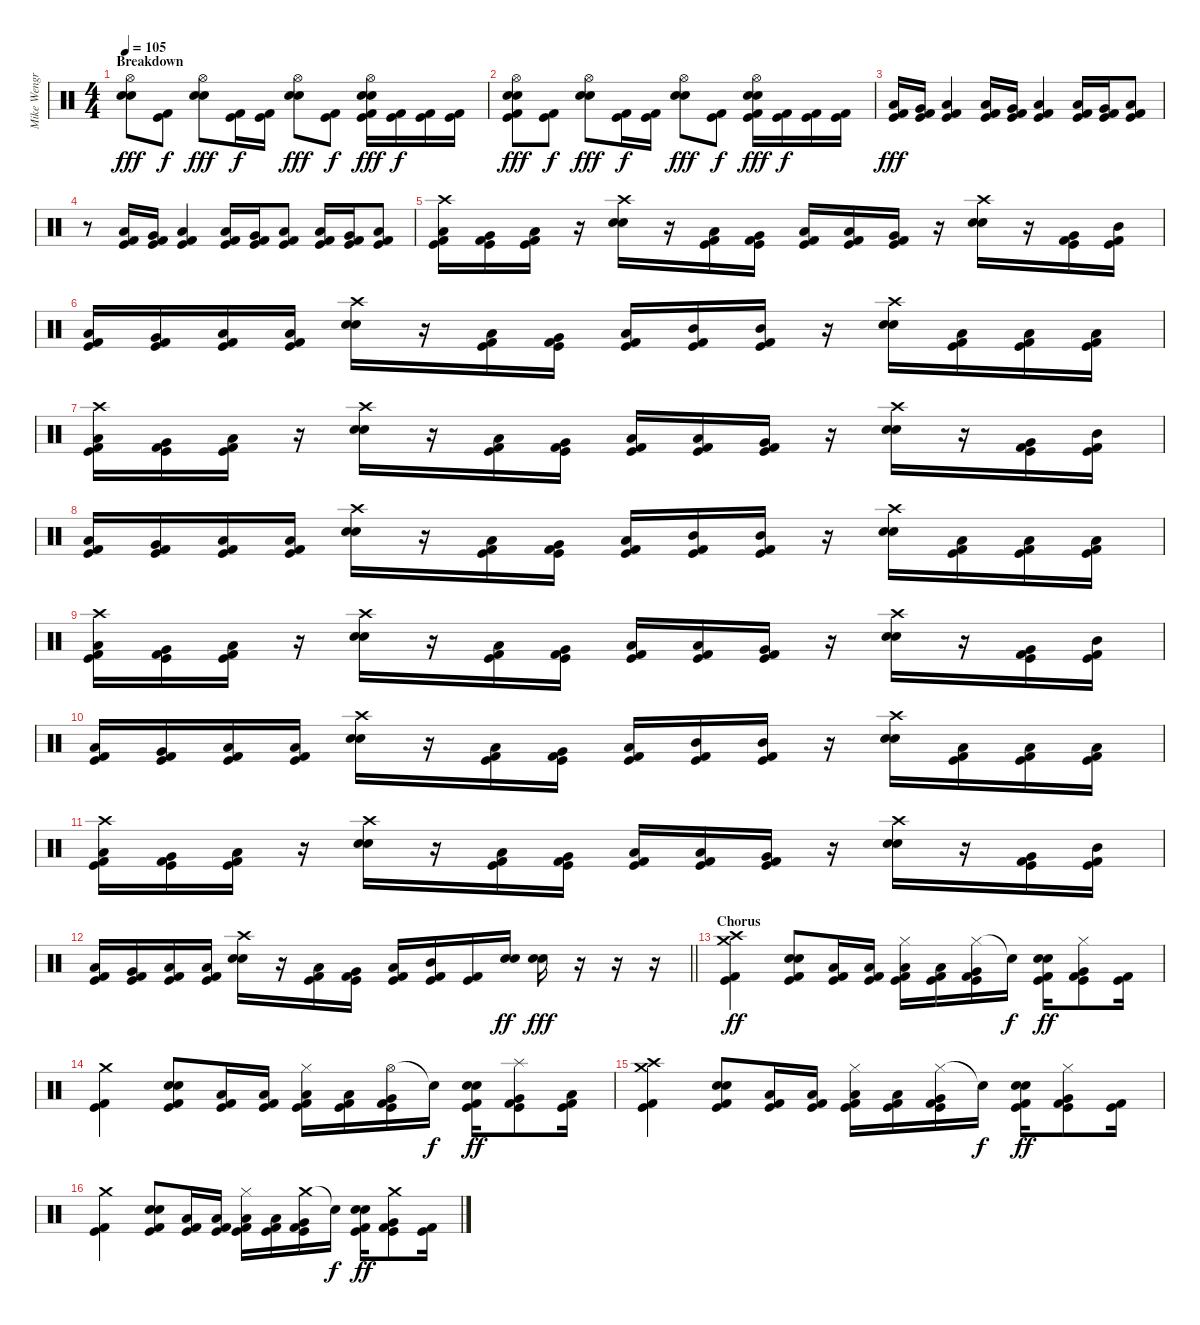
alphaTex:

\track ("Mike Wengren (Drums)" "Mike Wengr") {instrument percussion}
\staff {score}
\articulation defaults
\ts (4 4)
\section ("" "Breakdown")
\tempo 105
\clef neutral
\ks c
("Hi-Hat (open)" "Electric Snare (hit)" "Snare (hit) 2").8{dy fff} ("Kick (hit) 2" "Kick (hit)").8{dy f} ("Hi-Hat (open)" "Electric Snare (hit)" "Snare (hit) 2").8{dy fff} ("Kick (hit) 2" "Kick (hit)").16{dy f} ("Kick (hit) 2" "Kick (hit)").16 ("Hi-Hat (open)" "Electric Snare (hit)" "Snare (hit) 2").8{dy fff} ("Kick (hit) 2" "Kick (hit)").8{dy f} ("Hi-Hat (open)" "Electric Snare (hit)" "Snare (hit) 2" "Kick (hit) 2" "Kick (hit)").16{dy fff} ("Kick (hit) 2" "Kick (hit)").16{dy f} ("Kick (hit) 2" "Kick (hit)").16 ("Kick (hit) 2" "Kick (hit)").16 |
("Hi-Hat (open)" "Electric Snare (hit)" "Snare (hit) 2" "Kick (hit) 2" "Kick (hit)").8{dy fff} ("Kick (hit) 2" "Kick (hit)").8{dy f} ("Hi-Hat (open)" "Electric Snare (hit)" "Snare (hit) 2").8{dy fff} ("Kick (hit) 2" "Kick (hit)").16{dy f} ("Kick (hit) 2" "Kick (hit)").16 ("Hi-Hat (open)" "Electric Snare (hit)" "Snare (hit) 2").8{dy fff} ("Kick (hit) 2" "Kick (hit)").8{dy f} ("Hi-Hat (open)" "Electric Snare (hit)" "Snare (hit) 2" "Kick (hit) 2" "Kick (hit)").16{dy fff} ("Kick (hit) 2" "Kick (hit)").16{dy f} ("Kick (hit) 2" "Kick (hit)").16 ("Kick (hit) 2" "Kick (hit)").16 |
("Low Floor Tom (hit)" "Kick (hit)" "Kick (hit) 2").16{dy fff} ("Very Low Tom (hit)" "Kick (hit)" "Kick (hit) 2").16 ("Low Floor Tom (hit)" "Kick (hit)" "Kick (hit) 2").4 ("Low Floor Tom (hit)" "Kick (hit)" "Kick (hit) 2").16 ("Very Low Tom (hit)" "Kick (hit)" "Kick (hit) 2").16 ("Low Floor Tom (hit)" "Kick (hit)" "Kick (hit) 2").4 ("Low Floor Tom (hit)" "Kick (hit)" "Kick (hit) 2").16 ("Very Low Tom (hit)" "Kick (hit)" "Kick (hit) 2").16 ("Low Floor Tom (hit)" "Kick (hit)" "Kick (hit) 2").8 |
r.8 ("Low Floor Tom (hit)" "Kick (hit)" "Kick (hit) 2").16 ("Very Low Tom (hit)" "Kick (hit)" "Kick (hit) 2").16 ("Low Floor Tom (hit)" "Kick (hit)" "Kick (hit) 2").4 ("Low Floor Tom (hit)" "Kick (hit)" "Kick (hit) 2").16 ("Very Low Tom (hit)" "Kick (hit)" "Kick (hit) 2").16 ("Low Floor Tom (hit)" "Kick (hit)" "Kick (hit) 2").8 ("Low Floor Tom (hit)" "Kick (hit)" "Kick (hit) 2").16 ("Very Low Tom (hit)" "Kick (hit)" "Kick (hit) 2").16 ("Low Floor Tom (hit)" "Kick (hit)" "Kick (hit) 2").8 |
("Crash high (hit)" "Low Floor Tom (hit)" "Kick (hit)" "Kick (hit) 2").16 ("Very Low Tom (hit)" "Kick (hit)" "Kick (hit) 2").16 ("Low Floor Tom (hit)" "Kick (hit)" "Kick (hit) 2").16 r.16 ("Crash high (hit)" "Electric Snare (hit)" "Snare (hit) 2").16 r.16 ("Low Floor Tom (hit)" "Kick (hit)" "Kick (hit) 2").16 ("Very Low Tom (hit)" "Kick (hit)" "Kick (hit) 2").16 ("Low Floor Tom (hit)" "Kick (hit)" "Kick (hit) 2").16 ("Low Tom (hit)" "Kick (hit)" "Kick (hit) 2").16 ("Very Low Tom (hit)" "Kick (hit)" "Kick (hit) 2").16 r.16 ("Crash high (hit)" "Electric Snare (hit)" "Snare (hit) 2").16 r.16 ("Very Low Tom (hit)" "Kick (hit)" "Kick (hit) 2").16 ("Mid Tom (hit)" "Kick (hit)" "Kick (hit) 2").16 |
("Low Floor Tom (hit)" "Kick (hit)" "Kick (hit) 2").16 ("Very Low Tom (hit)" "Kick (hit)" "Kick (hit) 2").16 ("Low Floor Tom (hit)" "Kick (hit)" "Kick (hit) 2").16 ("Low Floor Tom (hit)" "Kick (hit)" "Kick (hit) 2").16 ("Crash high (hit)" "Electric Snare (hit)" "Snare (hit) 2").16 r.16 ("Low Floor Tom (hit)" "Kick (hit)" "Kick (hit) 2").16 ("Very Low Tom (hit)" "Kick (hit)" "Kick (hit) 2").16 ("Low Floor Tom (hit)" "Kick (hit)" "Kick (hit) 2").16 ("Mid Tom (hit)" "Kick (hit)" "Kick (hit) 2").16 ("Mid Tom (hit)" "Kick (hit)" "Kick (hit) 2").16 r.16 ("Crash high (hit)" "Electric Snare (hit)" "Snare (hit) 2").16 ("Low Tom (hit)" "Kick (hit)" "Kick (hit) 2").16 ("Low Tom (hit)" "Kick (hit)" "Kick (hit) 2").16 ("Low Tom (hit)" "Kick (hit)" "Kick (hit) 2").16 |
("Crash high (hit)" "Low Floor Tom (hit)" "Kick (hit)" "Kick (hit) 2").16 ("Very Low Tom (hit)" "Kick (hit)" "Kick (hit) 2").16 ("Low Floor Tom (hit)" "Kick (hit)" "Kick (hit) 2").16 r.16 ("Crash high (hit)" "Electric Snare (hit)" "Snare (hit) 2").16 r.16 ("Low Floor Tom (hit)" "Kick (hit)" "Kick (hit) 2").16 ("Very Low Tom (hit)" "Kick (hit)" "Kick (hit) 2").16 ("Low Floor Tom (hit)" "Kick (hit)" "Kick (hit) 2").16 ("Low Tom (hit)" "Kick (hit)" "Kick (hit) 2").16 ("Very Low Tom (hit)" "Kick (hit)" "Kick (hit) 2").16 r.16 ("Crash high (hit)" "Electric Snare (hit)" "Snare (hit) 2").16 r.16 ("Very Low Tom (hit)" "Kick (hit)" "Kick (hit) 2").16 ("Mid Tom (hit)" "Kick (hit)" "Kick (hit) 2").16 |
("Low Floor Tom (hit)" "Kick (hit)" "Kick (hit) 2").16 ("Very Low Tom (hit)" "Kick (hit)" "Kick (hit) 2").16 ("Low Floor Tom (hit)" "Kick (hit)" "Kick (hit) 2").16 ("Low Floor Tom (hit)" "Kick (hit)" "Kick (hit) 2").16 ("Crash high (hit)" "Electric Snare (hit)" "Snare (hit) 2").16 r.16 ("Low Floor Tom (hit)" "Kick (hit)" "Kick (hit) 2").16 ("Very Low Tom (hit)" "Kick (hit)" "Kick (hit) 2").16 ("Low Floor Tom (hit)" "Kick (hit)" "Kick (hit) 2").16 ("Mid Tom (hit)" "Kick (hit)" "Kick (hit) 2").16 ("Mid Tom (hit)" "Kick (hit)" "Kick (hit) 2").16 r.16 ("Crash high (hit)" "Electric Snare (hit)" "Snare (hit) 2").16 ("Low Tom (hit)" "Kick (hit)" "Kick (hit) 2").16 ("Low Tom (hit)" "Kick (hit)" "Kick (hit) 2").16 ("Low Tom (hit)" "Kick (hit)" "Kick (hit) 2").16 |
("Crash high (hit)" "Low Floor Tom (hit)" "Kick (hit)" "Kick (hit) 2").16 ("Very Low Tom (hit)" "Kick (hit)" "Kick (hit) 2").16 ("Low Floor Tom (hit)" "Kick (hit)" "Kick (hit) 2").16 r.16 ("Crash high (hit)" "Electric Snare (hit)" "Snare (hit) 2").16 r.16 ("Low Floor Tom (hit)" "Kick (hit)" "Kick (hit) 2").16 ("Very Low Tom (hit)" "Kick (hit)" "Kick (hit) 2").16 ("Low Floor Tom (hit)" "Kick (hit)" "Kick (hit) 2").16 ("Low Tom (hit)" "Kick (hit)" "Kick (hit) 2").16 ("Very Low Tom (hit)" "Kick (hit)" "Kick (hit) 2").16 r.16 ("Crash high (hit)" "Electric Snare (hit)" "Snare (hit) 2").16 r.16 ("Very Low Tom (hit)" "Kick (hit)" "Kick (hit) 2").16 ("Mid Tom (hit)" "Kick (hit)" "Kick (hit) 2").16 |
("Low Floor Tom (hit)" "Kick (hit)" "Kick (hit) 2").16 ("Very Low Tom (hit)" "Kick (hit)" "Kick (hit) 2").16 ("Low Floor Tom (hit)" "Kick (hit)" "Kick (hit) 2").16 ("Low Floor Tom (hit)" "Kick (hit)" "Kick (hit) 2").16 ("Crash high (hit)" "Electric Snare (hit)" "Snare (hit) 2").16 r.16 ("Low Floor Tom (hit)" "Kick (hit)" "Kick (hit) 2").16 ("Very Low Tom (hit)" "Kick (hit)" "Kick (hit) 2").16 ("Low Floor Tom (hit)" "Kick (hit)" "Kick (hit) 2").16 ("Mid Tom (hit)" "Kick (hit)" "Kick (hit) 2").16 ("Mid Tom (hit)" "Kick (hit)" "Kick (hit) 2").16 r.16 ("Crash high (hit)" "Electric Snare (hit)" "Snare (hit) 2").16 ("Low Tom (hit)" "Kick (hit)" "Kick (hit) 2").16 ("Low Tom (hit)" "Kick (hit)" "Kick (hit) 2").16 ("Low Tom (hit)" "Kick (hit)" "Kick (hit) 2").16 |
("Crash high (hit)" "Low Floor Tom (hit)" "Kick (hit)" "Kick (hit) 2").16 ("Very Low Tom (hit)" "Kick (hit)" "Kick (hit) 2").16 ("Low Floor Tom (hit)" "Kick (hit)" "Kick (hit) 2").16 r.16 ("Crash high (hit)" "Electric Snare (hit)" "Snare (hit) 2").16 r.16 ("Low Floor Tom (hit)" "Kick (hit)" "Kick (hit) 2").16 ("Very Low Tom (hit)" "Kick (hit)" "Kick (hit) 2").16 ("Low Floor Tom (hit)" "Kick (hit)" "Kick (hit) 2").16 ("Low Tom (hit)" "Kick (hit)" "Kick (hit) 2").16 ("Very Low Tom (hit)" "Kick (hit)" "Kick (hit) 2").16 r.16 ("Crash high (hit)" "Electric Snare (hit)" "Snare (hit) 2").16 r.16 ("Very Low Tom (hit)" "Kick (hit)" "Kick (hit) 2").16 ("Mid Tom (hit)" "Kick (hit)" "Kick (hit) 2").16 |
\barLineRight lightlight
("Low Floor Tom (hit)" "Kick (hit)" "Kick (hit) 2").16 ("Very Low Tom (hit)" "Kick (hit)" "Kick (hit) 2").16 ("Low Floor Tom (hit)" "Kick (hit)" "Kick (hit) 2").16 ("Low Floor Tom (hit)" "Kick (hit)" "Kick (hit) 2").16 ("Crash high (hit)" "Electric Snare (hit)" "Snare (hit) 2").16 r.16 ("Low Floor Tom (hit)" "Kick (hit)" "Kick (hit) 2").16 ("Very Low Tom (hit)" "Kick (hit)" "Kick (hit) 2").16 ("Low Floor Tom (hit)" "Kick (hit)" "Kick (hit) 2").16 ("Mid Tom (hit)" "Kick (hit)" "Kick (hit) 2").16 ("Kick (hit)" "Kick (hit) 2").16 ("Electric Snare (hit)" "Snare (hit) 2").16{dy ff} ("Electric Snare (hit)" "Snare (hit) 2").16{dy fff} r.16 r.16 r.16 |
\section ("" "Chorus")
("Crash medium (hit)" "Crash high (hit)" "Kick (hit) 2" "Kick (hit)").4{dy ff} ("Electric Snare (hit)" "Snare (hit) 2" "Kick (hit) 2" "Kick (hit)").8 ("Low Floor Tom (hit)" "Kick (hit) 2" "Kick (hit)").16 ("Low Floor Tom (hit)" "Kick (hit) 2" "Kick (hit)").16 ("Hi-Hat (closed)" "Low Floor Tom (hit)" "Kick (hit) 2" "Kick (hit)").16 ("Low Floor Tom (hit)" "Kick (hit) 2" "Kick (hit)").16 ("Hi-Hat (closed)" "Very Low Tom (hit)" "Kick (hit) 2" "Kick (hit)").16 "Snare (hit)"{t}.16{dy f} ("Electric Snare (hit)" "Snare (hit) 2" "Kick (hit) 2" "Kick (hit)").16{dy ff} ("Hi-Hat (closed)" "Very Low Tom (hit)" "Kick (hit) 2" "Kick (hit)").8 ("Kick (hit) 2" "Kick (hit)").16 |
("Crash medium (hit)" "Kick (hit) 2" "Kick (hit)").4 ("Electric Snare (hit)" "Snare (hit) 2" "Kick (hit) 2" "Kick (hit)").8 ("Low Floor Tom (hit)" "Kick (hit) 2" "Kick (hit)").16 ("Low Floor Tom (hit)" "Kick (hit) 2" "Kick (hit)").16 ("Hi-Hat (closed)" "Low Floor Tom (hit)" "Kick (hit) 2" "Kick (hit)").16 ("Low Floor Tom (hit)" "Kick (hit) 2" "Kick (hit)").16 ("Hi-Hat (open)" "Very Low Tom (hit)" "Kick (hit) 2" "Kick (hit)").16 "Snare (hit)"{t}.16{dy f} ("Electric Snare (hit)" "Snare (hit) 2" "Kick (hit) 2" "Kick (hit)").16{dy ff} ("Splash (hit)" "Very Low Tom (hit)" "Kick (hit) 2" "Kick (hit)").8 ("Low Floor Tom (hit)" "Kick (hit) 2" "Kick (hit)").16 |
("Crash medium (hit)" "Crash high (hit)" "Kick (hit) 2" "Kick (hit)").4 ("Electric Snare (hit)" "Snare (hit) 2" "Kick (hit) 2" "Kick (hit)").8 ("Low Floor Tom (hit)" "Kick (hit) 2" "Kick (hit)").16 ("Low Floor Tom (hit)" "Kick (hit) 2" "Kick (hit)").16 ("Hi-Hat (closed)" "Low Floor Tom (hit)" "Kick (hit) 2" "Kick (hit)").16 ("Low Floor Tom (hit)" "Kick (hit) 2" "Kick (hit)").16 ("Hi-Hat (closed)" "Very Low Tom (hit)" "Kick (hit) 2" "Kick (hit)").16 "Snare (hit)"{t}.16{dy f} ("Electric Snare (hit)" "Snare (hit) 2" "Kick (hit) 2" "Kick (hit)").16{dy ff} ("Hi-Hat (closed)" "Very Low Tom (hit)" "Kick (hit) 2" "Kick (hit)").8 ("Kick (hit) 2" "Kick (hit)").16 |
("Crash medium (hit)" "Kick (hit) 2" "Kick (hit)").4 ("Electric Snare (hit)" "Snare (hit) 2" "Kick (hit) 2" "Kick (hit)").8 ("Low Floor Tom (hit)" "Kick (hit) 2" "Kick (hit)").16 ("Low Floor Tom (hit)" "Kick (hit) 2" "Kick (hit)").16 ("Hi-Hat (closed)" "Low Floor Tom (hit)" "Kick (hit) 2" "Kick (hit)").16 ("Low Floor Tom (hit)" "Kick (hit) 2" "Kick (hit)").16 ("Crash medium (hit)" "Very Low Tom (hit)" "Kick (hit) 2" "Kick (hit)").16 "Snare (hit)"{t}.16{dy f} ("Electric Snare (hit)" "Snare (hit) 2" "Kick (hit) 2" "Kick (hit)").16{dy ff} ("Crash medium (hit)" "Very Low Tom (hit)" "Kick (hit) 2" "Kick (hit)").8 ("Kick (hit) 2" "Kick (hit)").16
